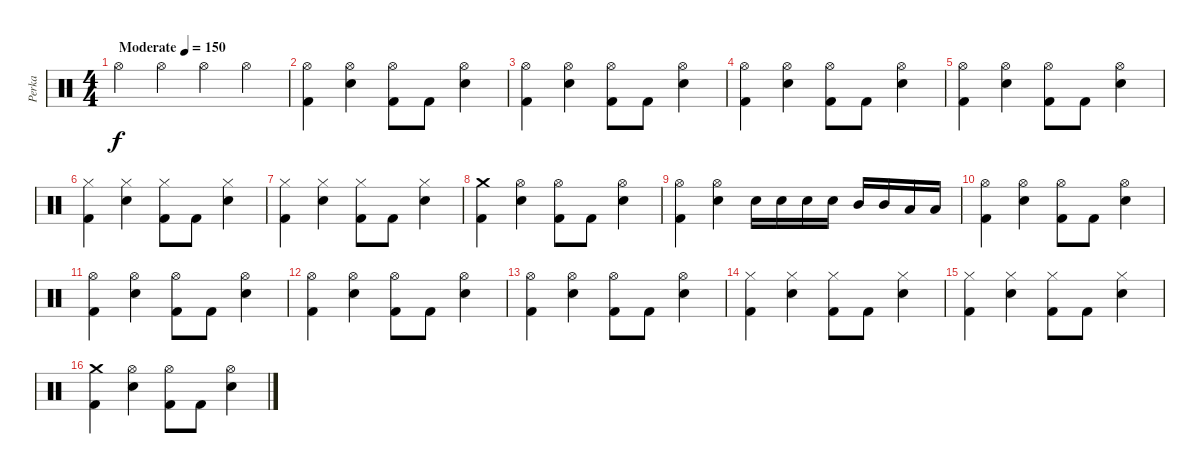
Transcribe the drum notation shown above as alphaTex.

\track ("Perka" "Perka") {instrument percussion}
\staff {score}
\articulation defaults
\ts (4 4)
\tempo (150 "Moderate")
\clef neutral
\ks c "Hi-Hat (open)".4{dy f} "Hi-Hat (open)".4 "Hi-Hat (open)".4 "Hi-Hat (open)".4
|
("Hi-Hat (open)" "Kick (hit) 2").4 ("Hi-Hat (open)" "Snare (hit) 2").4 ("Hi-Hat (open)" "Kick (hit) 2").8 "Kick (hit) 2".8 ("Hi-Hat (open)" "Snare (hit) 2").4 |
("Hi-Hat (open)" "Kick (hit) 2").4 ("Hi-Hat (open)" "Snare (hit) 2").4 ("Hi-Hat (open)" "Kick (hit) 2").8 "Kick (hit) 2".8 ("Hi-Hat (open)" "Snare (hit) 2").4 |
("Hi-Hat (open)" "Kick (hit) 2").4 ("Hi-Hat (open)" "Snare (hit) 2").4 ("Hi-Hat (open)" "Kick (hit) 2").8 "Kick (hit) 2".8 ("Hi-Hat (open)" "Snare (hit) 2").4 |
("Hi-Hat (open)" "Kick (hit) 2").4 ("Hi-Hat (open)" "Snare (hit) 2").4 ("Hi-Hat (open)" "Kick (hit) 2").8 "Kick (hit) 2".8 ("Hi-Hat (open)" "Snare (hit) 2").4 |
("Hi-Hat (closed)" "Kick (hit) 2").4 ("Hi-Hat (closed)" "Snare (hit) 2").4 ("Hi-Hat (closed)" "Kick (hit) 2").8 "Kick (hit) 2".8 ("Hi-Hat (closed)" "Snare (hit) 2").4 |
("Hi-Hat (closed)" "Kick (hit) 2").4 ("Hi-Hat (closed)" "Snare (hit) 2").4 ("Hi-Hat (closed)" "Kick (hit) 2").8 "Kick (hit) 2".8 ("Hi-Hat (closed)" "Snare (hit) 2").4 |
("Crash medium (hit)" "Kick (hit) 2").4 ("Hi-Hat (open)" "Snare (hit) 2").4 ("Hi-Hat (open)" "Kick (hit) 2").8 "Kick (hit) 2".8 ("Hi-Hat (open)" "Snare (hit) 2").4 |
("Hi-Hat (open)" "Kick (hit) 2").4 ("Hi-Hat (open)" "Snare (hit) 2").4 "Snare (hit) 2".16 "Snare (hit) 2".16 "Snare (hit) 2".16 "Snare (hit) 2".16 "Mid Tom (hit)".16 "Mid Tom (hit)".16 "Low Tom (hit)".16 "Low Tom (hit)".16 |
("Hi-Hat (open)" "Kick (hit) 2").4 ("Hi-Hat (open)" "Snare (hit) 2").4 ("Hi-Hat (open)" "Kick (hit) 2").8 "Kick (hit) 2".8 ("Hi-Hat (open)" "Snare (hit) 2").4 |
("Hi-Hat (open)" "Kick (hit) 2").4 ("Hi-Hat (open)" "Snare (hit) 2").4 ("Hi-Hat (open)" "Kick (hit) 2").8 "Kick (hit) 2".8 ("Hi-Hat (open)" "Snare (hit) 2").4 |
("Hi-Hat (open)" "Kick (hit) 2").4 ("Hi-Hat (open)" "Snare (hit) 2").4 ("Hi-Hat (open)" "Kick (hit) 2").8 "Kick (hit) 2".8 ("Hi-Hat (open)" "Snare (hit) 2").4 |
("Hi-Hat (open)" "Kick (hit) 2").4 ("Hi-Hat (open)" "Snare (hit) 2").4 ("Hi-Hat (open)" "Kick (hit) 2").8 "Kick (hit) 2".8 ("Hi-Hat (open)" "Snare (hit) 2").4 |
("Hi-Hat (closed)" "Kick (hit) 2").4 ("Hi-Hat (closed)" "Snare (hit) 2").4 ("Hi-Hat (closed)" "Kick (hit) 2").8 "Kick (hit) 2".8 ("Hi-Hat (closed)" "Snare (hit) 2").4 |
("Hi-Hat (closed)" "Kick (hit) 2").4 ("Hi-Hat (closed)" "Snare (hit) 2").4 ("Hi-Hat (closed)" "Kick (hit) 2").8 "Kick (hit) 2".8 ("Hi-Hat (closed)" "Snare (hit) 2").4 |
("Crash medium (hit)" "Kick (hit) 2").4 ("Hi-Hat (open)" "Snare (hit) 2").4 ("Hi-Hat (open)" "Kick (hit) 2").8 "Kick (hit) 2".8 ("Hi-Hat (open)" "Snare (hit) 2").4
